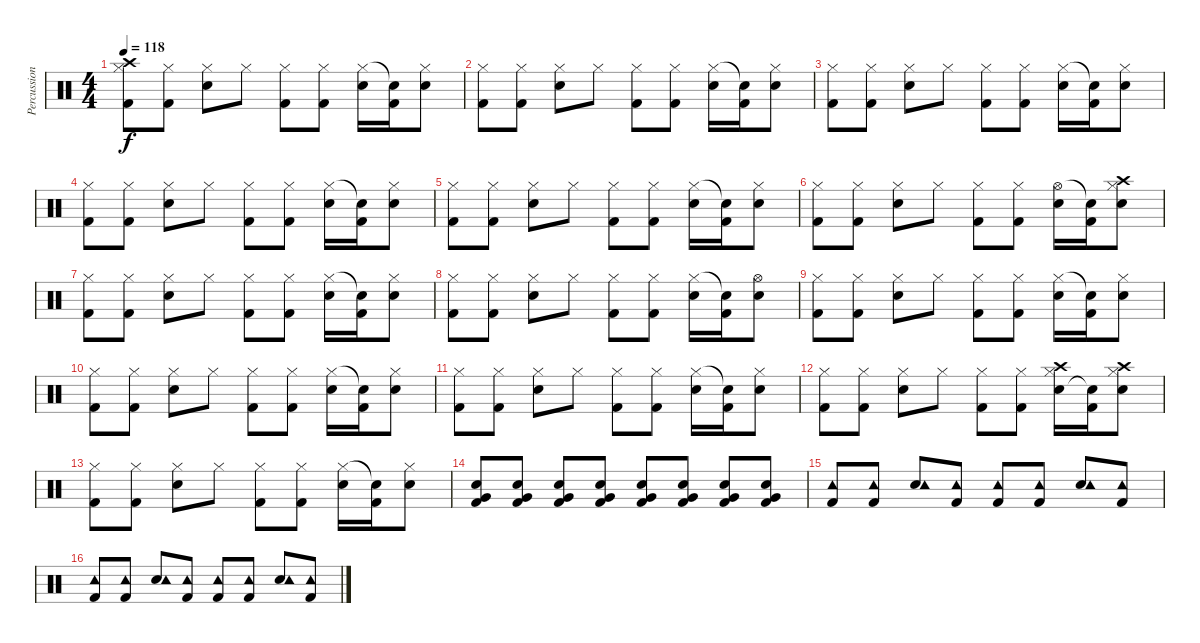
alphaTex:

\track ("Percussion" "Percussion") {instrument percussion}
\staff {score}
\articulation defaults
\ts (4 4)
\tempo 118
\clef neutral
\ks c
("Crash high (hit)" "Kick (hit) 2" "Hi-Hat (closed)").8{dy f} ("Kick (hit) 2" "Hi-Hat (closed)").8 ("Snare (hit) 2" "Hi-Hat (closed)").8 "Hi-Hat (closed)".8 ("Kick (hit) 2" "Hi-Hat (closed)").8 ("Kick (hit) 2" "Hi-Hat (closed)").8 ("Snare (hit) 2" "Hi-Hat (closed)").16 ("Kick (hit) 2" "Snare (hit)"{t}).16 ("Snare (hit) 2" "Hi-Hat (closed)").8 |
("Kick (hit) 2" "Hi-Hat (closed)").8 ("Kick (hit) 2" "Hi-Hat (closed)").8 ("Snare (hit) 2" "Hi-Hat (closed)").8 "Hi-Hat (closed)".8 ("Kick (hit) 2" "Hi-Hat (closed)").8 ("Kick (hit) 2" "Hi-Hat (closed)").8 ("Snare (hit) 2" "Hi-Hat (closed)").16 ("Kick (hit) 2" "Snare (hit)"{t}).16 ("Snare (hit) 2" "Hi-Hat (closed)").8 |
("Kick (hit) 2" "Hi-Hat (closed)").8 ("Kick (hit) 2" "Hi-Hat (closed)").8 ("Snare (hit) 2" "Hi-Hat (closed)").8 "Hi-Hat (closed)".8 ("Kick (hit) 2" "Hi-Hat (closed)").8 ("Kick (hit) 2" "Hi-Hat (closed)").8 ("Snare (hit) 2" "Hi-Hat (closed)").16 ("Kick (hit) 2" "Snare (hit)"{t}).16 ("Snare (hit) 2" "Hi-Hat (closed)").8 |
("Kick (hit) 2" "Hi-Hat (closed)").8 ("Kick (hit) 2" "Hi-Hat (closed)").8 ("Snare (hit) 2" "Hi-Hat (closed)").8 "Hi-Hat (closed)".8 ("Kick (hit) 2" "Hi-Hat (closed)").8 ("Kick (hit) 2" "Hi-Hat (closed)").8 ("Snare (hit) 2" "Hi-Hat (closed)").16 ("Kick (hit) 2" "Snare (hit)"{t}).16 ("Snare (hit) 2" "Hi-Hat (closed)").8 |
("Kick (hit) 2" "Hi-Hat (closed)").8 ("Kick (hit) 2" "Hi-Hat (closed)").8 ("Snare (hit) 2" "Hi-Hat (closed)").8 "Hi-Hat (closed)".8 ("Kick (hit) 2" "Hi-Hat (closed)").8 ("Kick (hit) 2" "Hi-Hat (closed)").8 ("Snare (hit) 2" "Hi-Hat (closed)").16 ("Kick (hit) 2" "Snare (hit)"{t}).16 ("Snare (hit) 2" "Hi-Hat (closed)").8 |
("Kick (hit) 2" "Hi-Hat (closed)").8 ("Kick (hit) 2" "Hi-Hat (closed)").8 ("Snare (hit) 2" "Hi-Hat (closed)").8 "Hi-Hat (closed)".8 ("Kick (hit) 2" "Hi-Hat (closed)").8 ("Kick (hit) 2" "Hi-Hat (closed)").8 ("Snare (hit) 2" "Hi-Hat (open)").16 ("Kick (hit) 2" "Snare (hit)"{t}).16 ("Crash high (hit)" "Snare (hit) 2" "Hi-Hat (closed)").8 |
("Kick (hit) 2" "Hi-Hat (closed)").8 ("Kick (hit) 2" "Hi-Hat (closed)").8 ("Snare (hit) 2" "Hi-Hat (closed)").8 "Hi-Hat (closed)".8 ("Kick (hit) 2" "Hi-Hat (closed)").8 ("Kick (hit) 2" "Hi-Hat (closed)").8 ("Snare (hit) 2" "Hi-Hat (closed)").16 ("Kick (hit) 2" "Snare (hit)"{t}).16 ("Snare (hit) 2" "Hi-Hat (closed)").8 |
("Kick (hit) 2" "Hi-Hat (closed)").8 ("Kick (hit) 2" "Hi-Hat (closed)").8 ("Snare (hit) 2" "Hi-Hat (closed)").8 "Hi-Hat (closed)".8 ("Kick (hit) 2" "Hi-Hat (closed)").8 ("Kick (hit) 2" "Hi-Hat (closed)").8 ("Snare (hit) 2" "Hi-Hat (closed)").16 ("Kick (hit) 2" "Snare (hit)"{t}).16 ("Snare (hit) 2" "Hi-Hat (open)").8 |
("Kick (hit) 2" "Hi-Hat (closed)").8 ("Kick (hit) 2" "Hi-Hat (closed)").8 ("Snare (hit) 2" "Hi-Hat (closed)").8 "Hi-Hat (closed)".8 ("Kick (hit) 2" "Hi-Hat (closed)").8 ("Kick (hit) 2" "Hi-Hat (closed)").8 ("Snare (hit) 2" "Hi-Hat (closed)").16 ("Kick (hit) 2" "Snare (hit)"{t}).16 ("Snare (hit) 2" "Hi-Hat (closed)").8 |
("Kick (hit) 2" "Hi-Hat (closed)").8 ("Kick (hit) 2" "Hi-Hat (closed)").8 ("Snare (hit) 2" "Hi-Hat (closed)").8 "Hi-Hat (closed)".8 ("Kick (hit) 2" "Hi-Hat (closed)").8 ("Kick (hit) 2" "Hi-Hat (closed)").8 ("Snare (hit) 2" "Hi-Hat (closed)").16 ("Kick (hit) 2" "Snare (hit)"{t}).16 ("Snare (hit) 2" "Hi-Hat (closed)").8 |
("Kick (hit) 2" "Hi-Hat (closed)").8 ("Kick (hit) 2" "Hi-Hat (closed)").8 ("Snare (hit) 2" "Hi-Hat (closed)").8 "Hi-Hat (closed)".8 ("Kick (hit) 2" "Hi-Hat (closed)").8 ("Kick (hit) 2" "Hi-Hat (closed)").8 ("Snare (hit) 2" "Hi-Hat (closed)").16 ("Kick (hit) 2" "Snare (hit)"{t}).16 ("Snare (hit) 2" "Hi-Hat (closed)").8 |
("Kick (hit) 2" "Hi-Hat (closed)").8 ("Kick (hit) 2" "Hi-Hat (closed)").8 ("Snare (hit) 2" "Hi-Hat (closed)").8 "Hi-Hat (closed)".8 ("Kick (hit) 2" "Hi-Hat (closed)").8 ("Kick (hit) 2" "Hi-Hat (closed)").8 ("Crash high (hit)" "Snare (hit) 2" "Hi-Hat (closed)").16 ("Kick (hit) 2" "Snare (hit)"{t}).16 ("Crash high (hit)" "Snare (hit) 2" "Hi-Hat (closed)").8 |
("Kick (hit) 2" "Hi-Hat (closed)").8 ("Kick (hit) 2" "Hi-Hat (closed)").8 ("Snare (hit) 2" "Hi-Hat (closed)").8 "Hi-Hat (closed)".8 ("Kick (hit) 2" "Hi-Hat (closed)").8 ("Kick (hit) 2" "Hi-Hat (closed)").8 ("Snare (hit) 2" "Hi-Hat (closed)").16 ("Kick (hit) 2" "Snare (hit)"{t}).16 ("Snare (hit) 2" "Hi-Hat (closed)").8 |
("Snare (hit) 2" "Very Low Tom (hit)" "Kick (hit) 2").8 ("Snare (hit) 2" "Very Low Tom (hit)" "Kick (hit) 2").8 ("Snare (hit) 2" "Very Low Tom (hit)" "Kick (hit) 2").8 ("Snare (hit) 2" "Very Low Tom (hit)" "Kick (hit) 2").8 ("Snare (hit) 2" "Very Low Tom (hit)" "Kick (hit) 2").8 ("Snare (hit) 2" "Very Low Tom (hit)" "Kick (hit) 2").8 ("Snare (hit) 2" "Very Low Tom (hit)" "Kick (hit) 2").8 ("Snare (hit) 2" "Very Low Tom (hit)" "Kick (hit) 2").8 |
("Kick (hit) 2" "Tambourine (hit)").8 ("Kick (hit) 2" "Tambourine (hit)").8 ("Snare (hit) 2" "Tambourine (hit)").8 ("Kick (hit) 2" "Tambourine (hit)").8 ("Kick (hit) 2" "Tambourine (hit)").8 ("Kick (hit) 2" "Tambourine (hit)").8 ("Snare (hit) 2" "Tambourine (hit)").8 ("Kick (hit) 2" "Tambourine (hit)").8 |
("Kick (hit) 2" "Tambourine (hit)").8 ("Kick (hit) 2" "Tambourine (hit)").8 ("Snare (hit) 2" "Tambourine (hit)").8 ("Kick (hit) 2" "Tambourine (hit)").8 ("Kick (hit) 2" "Tambourine (hit)").8 ("Kick (hit) 2" "Tambourine (hit)").8 ("Snare (hit) 2" "Tambourine (hit)").8 ("Kick (hit) 2" "Tambourine (hit)").8
